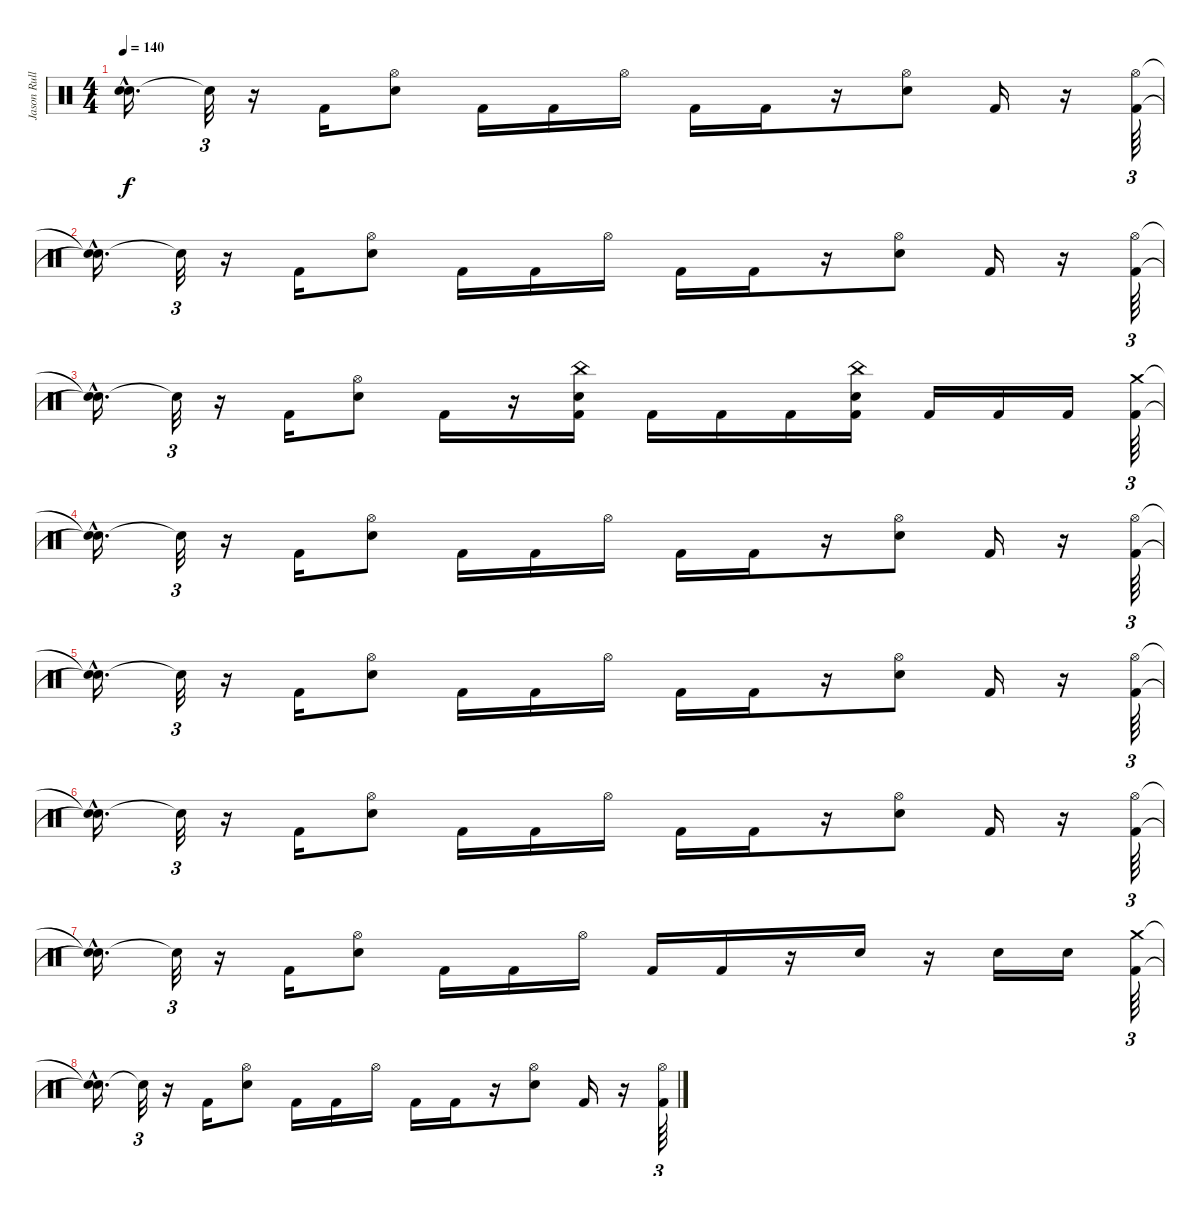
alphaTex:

\track ("Jason Rullo" "Jason Rull") {instrument percussion}
\staff {score}
\articulation defaults
\ts (4 4)
\tempo 140
\clef neutral
\ks c
("Snare (hit)"{hac t} "Snare (hit)"{hac t}).16{d dy f} "Snare (hit)"{t}.32{tu (3 2)} r.16 "Kick (hit) 2".16 ("Hi-Hat (open)" "Electric Snare (hit)").8 "Kick (hit) 2".16 "Kick (hit) 2".16 "Hi-Hat (open)".16 "Kick (hit) 2".16 "Kick (hit) 2".16 r.16 ("Hi-Hat (open)" "Electric Snare (hit)").8 "Kick (hit) 2".16 r.16 ("Hi-Hat (open)" "Kick (hit) 2").64{tu (3 2)} |
("Snare (hit)"{hac t} "Snare (hit)"{hac t}).16{d} "Snare (hit)"{t}.32{tu (3 2)} r.16 "Kick (hit) 2".16 ("Hi-Hat (open)" "Electric Snare (hit)").8 "Kick (hit) 2".16 "Kick (hit) 2".16 "Hi-Hat (open)".16 "Kick (hit) 2".16 "Kick (hit) 2".16 r.16 ("Hi-Hat (open)" "Electric Snare (hit)").8 "Kick (hit) 2".16 r.16 ("Hi-Hat (open)" "Kick (hit) 2").64{tu (3 2)} |
("Snare (hit)"{hac t} "Snare (hit)"{hac t}).16{d} "Snare (hit)"{t}.32{tu (3 2)} r.16 "Kick (hit) 2".16 ("Hi-Hat (open)" "Electric Snare (hit)").8 "Kick (hit) 2".16 r.16 ("China (hit)" "Electric Snare (hit)" "Kick (hit) 2").16 "Kick (hit) 2".16 "Kick (hit) 2".16 "Kick (hit) 2".16 ("Kick (hit) 2" "China (hit)" "Electric Snare (hit)").16 "Kick (hit) 2".16 "Kick (hit) 2".16 "Kick (hit) 2".16 ("Crash medium (hit)" "Kick (hit) 2").64{tu (3 2)} |
("Snare (hit)"{hac t} "Snare (hit)"{hac t}).16{d} "Snare (hit)"{t}.32{tu (3 2)} r.16 "Kick (hit) 2".16 ("Hi-Hat (open)" "Electric Snare (hit)").8 "Kick (hit) 2".16 "Kick (hit) 2".16 "Hi-Hat (open)".16 "Kick (hit) 2".16 "Kick (hit) 2".16 r.16 ("Hi-Hat (open)" "Electric Snare (hit)").8 "Kick (hit) 2".16 r.16 ("Hi-Hat (open)" "Kick (hit) 2").64{tu (3 2)} |
("Snare (hit)"{hac t} "Snare (hit)"{hac t}).16{d} "Snare (hit)"{t}.32{tu (3 2)} r.16 "Kick (hit) 2".16 ("Hi-Hat (open)" "Electric Snare (hit)").8 "Kick (hit) 2".16 "Kick (hit) 2".16 "Hi-Hat (open)".16 "Kick (hit) 2".16 "Kick (hit) 2".16 r.16 ("Hi-Hat (open)" "Electric Snare (hit)").8 "Kick (hit) 2".16 r.16 ("Hi-Hat (open)" "Kick (hit) 2").64{tu (3 2)} |
("Snare (hit)"{hac t} "Snare (hit)"{hac t}).16{d} "Snare (hit)"{t}.32{tu (3 2)} r.16 "Kick (hit) 2".16 ("Hi-Hat (open)" "Electric Snare (hit)").8 "Kick (hit) 2".16 "Kick (hit) 2".16 "Hi-Hat (open)".16 "Kick (hit) 2".16 "Kick (hit) 2".16 r.16 ("Hi-Hat (open)" "Electric Snare (hit)").8 "Kick (hit) 2".16 r.16 ("Hi-Hat (open)" "Kick (hit) 2").64{tu (3 2)} |
("Snare (hit)"{hac t} "Snare (hit)"{hac t}).16{d} "Snare (hit)"{t}.32{tu (3 2)} r.16 "Kick (hit) 2".16 ("Hi-Hat (open)" "Electric Snare (hit)").8 "Kick (hit) 2".16 "Kick (hit) 2".16 "Hi-Hat (open)".16 "Kick (hit) 2".16 "Kick (hit) 2".16 r.16 "Electric Snare (hit)".16 r.16 "Electric Snare (hit)".16 "Electric Snare (hit)".16 ("Crash medium (hit)" "Kick (hit) 2").64{tu (3 2)} |
("Snare (hit)"{hac t} "Snare (hit)"{hac t}).16{d} "Snare (hit)"{t}.32{tu (3 2)} r.16 "Kick (hit) 2".16 ("Hi-Hat (open)" "Electric Snare (hit)").8 "Kick (hit) 2".16 "Kick (hit) 2".16 "Hi-Hat (open)".16 "Kick (hit) 2".16 "Kick (hit) 2".16 r.16 ("Hi-Hat (open)" "Electric Snare (hit)").8 "Kick (hit) 2".16 r.16 ("Hi-Hat (open)" "Kick (hit) 2").64{tu (3 2)}
